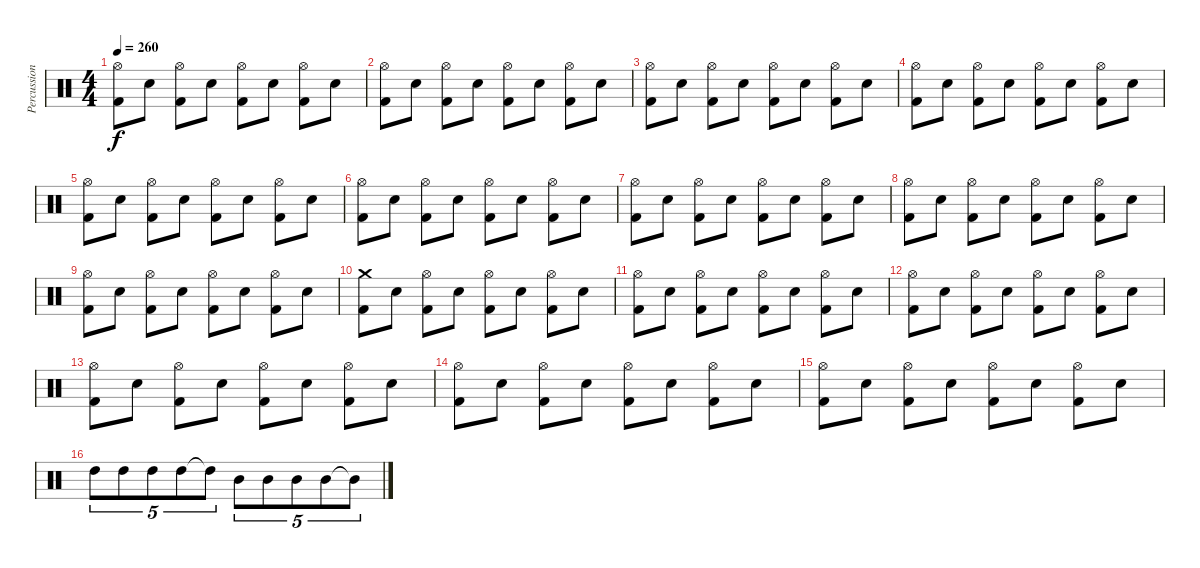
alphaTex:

\track ("Percussion" "Percussion") {instrument percussion}
\staff {score}
\articulation defaults
\ts (4 4)
\tempo 260
\clef neutral
\ks c
("Hi-Hat (open)" "Kick (hit) 2").8{dy f} "Snare (hit) 2".8 ("Hi-Hat (open)" "Kick (hit) 2").8 "Snare (hit) 2".8 ("Hi-Hat (open)" "Kick (hit) 2").8 "Snare (hit) 2".8 ("Hi-Hat (open)" "Kick (hit) 2").8 "Snare (hit) 2".8 |
("Hi-Hat (open)" "Kick (hit) 2").8 "Snare (hit) 2".8 ("Hi-Hat (open)" "Kick (hit) 2").8 "Snare (hit) 2".8 ("Hi-Hat (open)" "Kick (hit) 2").8 "Snare (hit) 2".8 ("Hi-Hat (open)" "Kick (hit) 2").8 "Snare (hit) 2".8 |
("Hi-Hat (open)" "Kick (hit) 2").8 "Snare (hit) 2".8 ("Hi-Hat (open)" "Kick (hit) 2").8 "Snare (hit) 2".8 ("Hi-Hat (open)" "Kick (hit) 2").8 "Snare (hit) 2".8 ("Hi-Hat (open)" "Kick (hit) 2").8 "Snare (hit) 2".8 |
("Hi-Hat (open)" "Kick (hit) 2").8 "Snare (hit) 2".8 ("Hi-Hat (open)" "Kick (hit) 2").8 "Snare (hit) 2".8 ("Hi-Hat (open)" "Kick (hit) 2").8 "Snare (hit) 2".8 ("Hi-Hat (open)" "Kick (hit) 2").8 "Snare (hit) 2".8 |
("Hi-Hat (open)" "Kick (hit) 2").8 "Snare (hit) 2".8 ("Hi-Hat (open)" "Kick (hit) 2").8 "Snare (hit) 2".8 ("Hi-Hat (open)" "Kick (hit) 2").8 "Snare (hit) 2".8 ("Hi-Hat (open)" "Kick (hit) 2").8 "Snare (hit) 2".8 |
("Hi-Hat (open)" "Kick (hit) 2").8 "Snare (hit) 2".8 ("Hi-Hat (open)" "Kick (hit) 2").8 "Snare (hit) 2".8 ("Hi-Hat (open)" "Kick (hit) 2").8 "Snare (hit) 2".8 ("Hi-Hat (open)" "Kick (hit) 2").8 "Snare (hit) 2".8 |
("Hi-Hat (open)" "Kick (hit) 2").8 "Snare (hit) 2".8 ("Hi-Hat (open)" "Kick (hit) 2").8 "Snare (hit) 2".8 ("Hi-Hat (open)" "Kick (hit) 2").8 "Snare (hit) 2".8 ("Hi-Hat (open)" "Kick (hit) 2").8 "Snare (hit) 2".8 |
("Hi-Hat (open)" "Kick (hit) 2").8 "Snare (hit) 2".8 ("Hi-Hat (open)" "Kick (hit) 2").8 "Snare (hit) 2".8 ("Hi-Hat (open)" "Kick (hit) 2").8 "Snare (hit) 2".8 ("Hi-Hat (open)" "Kick (hit) 2").8 "Snare (hit) 2".8 |
("Hi-Hat (open)" "Kick (hit) 2").8 "Snare (hit) 2".8 ("Hi-Hat (open)" "Kick (hit) 2").8 "Snare (hit) 2".8 ("Hi-Hat (open)" "Kick (hit) 2").8 "Snare (hit) 2".8 ("Hi-Hat (open)" "Kick (hit) 2").8 "Snare (hit) 2".8 |
("Crash medium (hit)" "Kick (hit) 2").8 "Snare (hit) 2".8 ("Hi-Hat (open)" "Kick (hit) 2").8 "Snare (hit) 2".8 ("Hi-Hat (open)" "Kick (hit) 2").8 "Snare (hit) 2".8 ("Hi-Hat (open)" "Kick (hit) 2").8 "Snare (hit) 2".8 |
("Hi-Hat (open)" "Kick (hit) 2").8 "Snare (hit) 2".8 ("Hi-Hat (open)" "Kick (hit) 2").8 "Snare (hit) 2".8 ("Hi-Hat (open)" "Kick (hit) 2").8 "Snare (hit) 2".8 ("Hi-Hat (open)" "Kick (hit) 2").8 "Snare (hit) 2".8 |
("Hi-Hat (open)" "Kick (hit) 2").8 "Snare (hit) 2".8 ("Hi-Hat (open)" "Kick (hit) 2").8 "Snare (hit) 2".8 ("Hi-Hat (open)" "Kick (hit) 2").8 "Snare (hit) 2".8 ("Hi-Hat (open)" "Kick (hit) 2").8 "Snare (hit) 2".8 |
("Hi-Hat (open)" "Kick (hit) 2").8 "Snare (hit) 2".8 ("Hi-Hat (open)" "Kick (hit) 2").8 "Snare (hit) 2".8 ("Hi-Hat (open)" "Kick (hit) 2").8 "Snare (hit) 2".8 ("Hi-Hat (open)" "Kick (hit) 2").8 "Snare (hit) 2".8 |
("Hi-Hat (open)" "Kick (hit) 2").8 "Snare (hit) 2".8 ("Hi-Hat (open)" "Kick (hit) 2").8 "Snare (hit) 2".8 ("Hi-Hat (open)" "Kick (hit) 2").8 "Snare (hit) 2".8 ("Hi-Hat (open)" "Kick (hit) 2").8 "Snare (hit) 2".8 |
("Hi-Hat (open)" "Kick (hit) 2").8 "Snare (hit) 2".8 ("Hi-Hat (open)" "Kick (hit) 2").8 "Snare (hit) 2".8 ("Hi-Hat (open)" "Kick (hit) 2").8 "Snare (hit) 2".8 ("Hi-Hat (open)" "Kick (hit) 2").8 "Snare (hit) 2".8 |
"High Tom (hit)".8{tu (5 4)} "High Tom (hit)".8{tu (5 4)} "High Tom (hit)".8{tu (5 4)} "High Tom (hit)".8{tu (5 4)} "High Tom (hit)"{t}.8{tu (5 4)} "Mid Tom (hit)".8{tu (5 4)} "Mid Tom (hit)".8{tu (5 4)} "Mid Tom (hit)".8{tu (5 4)} "Mid Tom (hit)".8{tu (5 4)} "Mid Tom (hit)"{t}.8{tu (5 4)}
